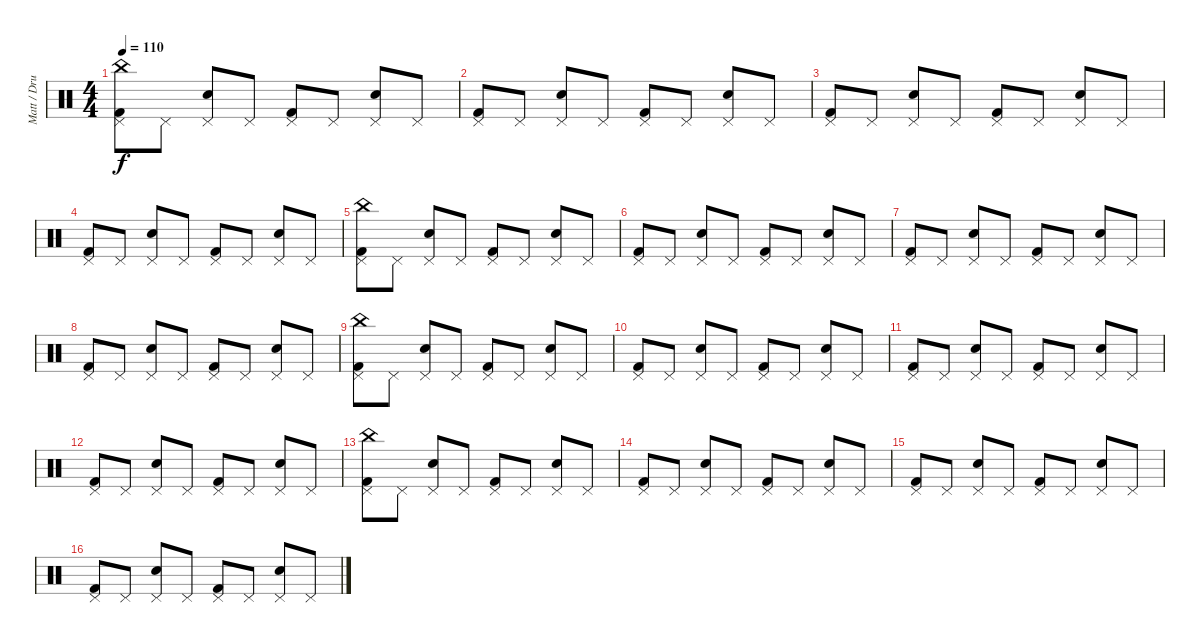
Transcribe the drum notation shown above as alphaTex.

\track ("Matt / Drums" "Matt / Dru") {instrument percussion}
\staff {score}
\articulation defaults
\ts (4 4)
\tempo 110
\clef neutral
\ks c
("China (hit)" "Pedal Hi-Hat (hit)" "Kick (hit) 2").8{dy f} "Pedal Hi-Hat (hit)".8 ("Pedal Hi-Hat (hit)" "Snare (hit) 2").8 "Pedal Hi-Hat (hit)".8 ("Pedal Hi-Hat (hit)" "Kick (hit) 2").8 "Pedal Hi-Hat (hit)".8 ("Pedal Hi-Hat (hit)" "Snare (hit) 2").8 "Pedal Hi-Hat (hit)".8 |
("Pedal Hi-Hat (hit)" "Kick (hit) 2").8 "Pedal Hi-Hat (hit)".8 ("Pedal Hi-Hat (hit)" "Snare (hit) 2").8 "Pedal Hi-Hat (hit)".8 ("Pedal Hi-Hat (hit)" "Kick (hit) 2").8 "Pedal Hi-Hat (hit)".8 ("Pedal Hi-Hat (hit)" "Snare (hit) 2").8 "Pedal Hi-Hat (hit)".8 |
("Pedal Hi-Hat (hit)" "Kick (hit) 2").8 "Pedal Hi-Hat (hit)".8 ("Pedal Hi-Hat (hit)" "Snare (hit) 2").8 "Pedal Hi-Hat (hit)".8 ("Pedal Hi-Hat (hit)" "Kick (hit) 2").8 "Pedal Hi-Hat (hit)".8 ("Pedal Hi-Hat (hit)" "Snare (hit) 2").8 "Pedal Hi-Hat (hit)".8 |
("Pedal Hi-Hat (hit)" "Kick (hit) 2").8 "Pedal Hi-Hat (hit)".8 ("Pedal Hi-Hat (hit)" "Snare (hit) 2").8 "Pedal Hi-Hat (hit)".8 ("Pedal Hi-Hat (hit)" "Kick (hit) 2").8 "Pedal Hi-Hat (hit)".8 ("Pedal Hi-Hat (hit)" "Snare (hit) 2").8 "Pedal Hi-Hat (hit)".8 |
("China (hit)" "Pedal Hi-Hat (hit)" "Kick (hit) 2").8 "Pedal Hi-Hat (hit)".8 ("Pedal Hi-Hat (hit)" "Snare (hit) 2").8 "Pedal Hi-Hat (hit)".8 ("Pedal Hi-Hat (hit)" "Kick (hit) 2").8 "Pedal Hi-Hat (hit)".8 ("Pedal Hi-Hat (hit)" "Snare (hit) 2").8 "Pedal Hi-Hat (hit)".8 |
("Pedal Hi-Hat (hit)" "Kick (hit) 2").8 "Pedal Hi-Hat (hit)".8 ("Pedal Hi-Hat (hit)" "Snare (hit) 2").8 "Pedal Hi-Hat (hit)".8 ("Pedal Hi-Hat (hit)" "Kick (hit) 2").8 "Pedal Hi-Hat (hit)".8 ("Pedal Hi-Hat (hit)" "Snare (hit) 2").8 "Pedal Hi-Hat (hit)".8 |
("Pedal Hi-Hat (hit)" "Kick (hit) 2").8 "Pedal Hi-Hat (hit)".8 ("Pedal Hi-Hat (hit)" "Snare (hit) 2").8 "Pedal Hi-Hat (hit)".8 ("Pedal Hi-Hat (hit)" "Kick (hit) 2").8 "Pedal Hi-Hat (hit)".8 ("Pedal Hi-Hat (hit)" "Snare (hit) 2").8 "Pedal Hi-Hat (hit)".8 |
("Pedal Hi-Hat (hit)" "Kick (hit) 2").8 "Pedal Hi-Hat (hit)".8 ("Pedal Hi-Hat (hit)" "Snare (hit) 2").8 "Pedal Hi-Hat (hit)".8 ("Pedal Hi-Hat (hit)" "Kick (hit) 2").8 "Pedal Hi-Hat (hit)".8 ("Pedal Hi-Hat (hit)" "Snare (hit) 2").8 "Pedal Hi-Hat (hit)".8 |
("China (hit)" "Pedal Hi-Hat (hit)" "Kick (hit) 2").8 "Pedal Hi-Hat (hit)".8 ("Pedal Hi-Hat (hit)" "Snare (hit) 2").8 "Pedal Hi-Hat (hit)".8 ("Pedal Hi-Hat (hit)" "Kick (hit) 2").8 "Pedal Hi-Hat (hit)".8 ("Pedal Hi-Hat (hit)" "Snare (hit) 2").8 "Pedal Hi-Hat (hit)".8 |
("Pedal Hi-Hat (hit)" "Kick (hit) 2").8 "Pedal Hi-Hat (hit)".8 ("Pedal Hi-Hat (hit)" "Snare (hit) 2").8 "Pedal Hi-Hat (hit)".8 ("Pedal Hi-Hat (hit)" "Kick (hit) 2").8 "Pedal Hi-Hat (hit)".8 ("Pedal Hi-Hat (hit)" "Snare (hit) 2").8 "Pedal Hi-Hat (hit)".8 |
("Pedal Hi-Hat (hit)" "Kick (hit) 2").8 "Pedal Hi-Hat (hit)".8 ("Pedal Hi-Hat (hit)" "Snare (hit) 2").8 "Pedal Hi-Hat (hit)".8 ("Pedal Hi-Hat (hit)" "Kick (hit) 2").8 "Pedal Hi-Hat (hit)".8 ("Pedal Hi-Hat (hit)" "Snare (hit) 2").8 "Pedal Hi-Hat (hit)".8 |
("Pedal Hi-Hat (hit)" "Kick (hit) 2").8 "Pedal Hi-Hat (hit)".8 ("Pedal Hi-Hat (hit)" "Snare (hit) 2").8 "Pedal Hi-Hat (hit)".8 ("Pedal Hi-Hat (hit)" "Kick (hit) 2").8 "Pedal Hi-Hat (hit)".8 ("Pedal Hi-Hat (hit)" "Snare (hit) 2").8 "Pedal Hi-Hat (hit)".8 |
("China (hit)" "Pedal Hi-Hat (hit)" "Kick (hit) 2").8 "Pedal Hi-Hat (hit)".8 ("Pedal Hi-Hat (hit)" "Snare (hit) 2").8 "Pedal Hi-Hat (hit)".8 ("Pedal Hi-Hat (hit)" "Kick (hit) 2").8 "Pedal Hi-Hat (hit)".8 ("Pedal Hi-Hat (hit)" "Snare (hit) 2").8 "Pedal Hi-Hat (hit)".8 |
("Pedal Hi-Hat (hit)" "Kick (hit) 2").8 "Pedal Hi-Hat (hit)".8 ("Pedal Hi-Hat (hit)" "Snare (hit) 2").8 "Pedal Hi-Hat (hit)".8 ("Pedal Hi-Hat (hit)" "Kick (hit) 2").8 "Pedal Hi-Hat (hit)".8 ("Pedal Hi-Hat (hit)" "Snare (hit) 2").8 "Pedal Hi-Hat (hit)".8 |
("Pedal Hi-Hat (hit)" "Kick (hit) 2").8 "Pedal Hi-Hat (hit)".8 ("Pedal Hi-Hat (hit)" "Snare (hit) 2").8 "Pedal Hi-Hat (hit)".8 ("Pedal Hi-Hat (hit)" "Kick (hit) 2").8 "Pedal Hi-Hat (hit)".8 ("Pedal Hi-Hat (hit)" "Snare (hit) 2").8 "Pedal Hi-Hat (hit)".8 |
("Pedal Hi-Hat (hit)" "Kick (hit) 2").8 "Pedal Hi-Hat (hit)".8 ("Pedal Hi-Hat (hit)" "Snare (hit) 2").8 "Pedal Hi-Hat (hit)".8 ("Pedal Hi-Hat (hit)" "Kick (hit) 2").8 "Pedal Hi-Hat (hit)".8 ("Pedal Hi-Hat (hit)" "Snare (hit) 2").8 "Pedal Hi-Hat (hit)".8
